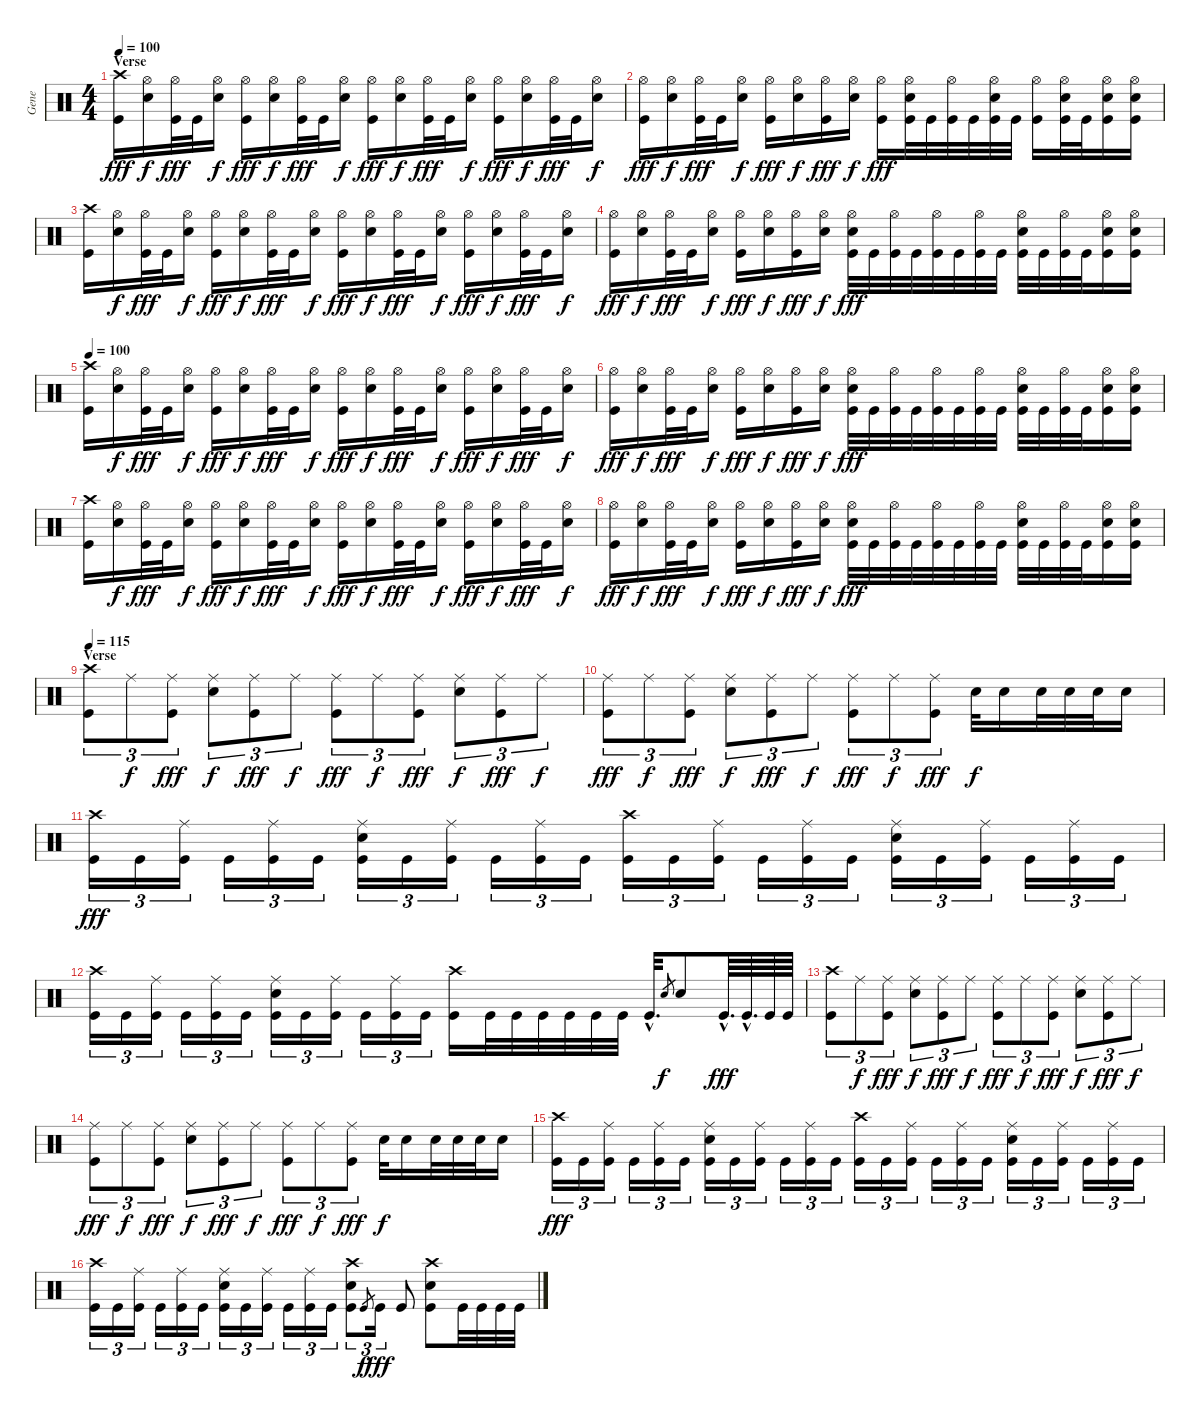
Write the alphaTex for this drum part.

\track ("Gene" "Gene") {instrument percussion}
\staff {score}
\articulation defaults
\ts (4 4)
\section ("" "Verse")
\tempo 100
\clef neutral
\ks c
("Crash high (hit)" "Kick (hit)").16{dy fff} ("Hi-Hat (open)" "Snare (hit) 2").16{dy f} ("Hi-Hat (open)" "Kick (hit)").32{dy fff} "Kick (hit)".32 ("Hi-Hat (open)" "Snare (hit) 2").16{dy f} ("Hi-Hat (open)" "Kick (hit)").16{dy fff} ("Hi-Hat (open)" "Snare (hit) 2").16{dy f} ("Hi-Hat (open)" "Kick (hit)").32{dy fff} "Kick (hit)".32 ("Hi-Hat (open)" "Snare (hit) 2").16{dy f} ("Hi-Hat (open)" "Kick (hit)").16{dy fff} ("Hi-Hat (open)" "Snare (hit) 2").16{dy f} ("Hi-Hat (open)" "Kick (hit)").32{dy fff} "Kick (hit)".32 ("Hi-Hat (open)" "Snare (hit) 2").16{dy f} ("Hi-Hat (open)" "Kick (hit)").16{dy fff} ("Hi-Hat (open)" "Snare (hit) 2").16{dy f} ("Hi-Hat (open)" "Kick (hit)").32{dy fff} "Kick (hit)".32 ("Hi-Hat (open)" "Snare (hit) 2").16{dy f} |
("Hi-Hat (open)" "Kick (hit)").16{dy fff} ("Hi-Hat (open)" "Snare (hit) 2").16{dy f} ("Hi-Hat (open)" "Kick (hit)").32{dy fff} "Kick (hit)".32 ("Hi-Hat (open)" "Snare (hit) 2").16{dy f} ("Hi-Hat (open)" "Kick (hit)").16{dy fff} ("Hi-Hat (open)" "Snare (hit) 2").16{dy f} ("Hi-Hat (open)" "Kick (hit)").16{dy fff} ("Hi-Hat (open)" "Snare (hit) 2").16{dy f} ("Hi-Hat (open)" "Kick (hit)").16{dy fff} ("Hi-Hat (open)" "Snare (hit) 2" "Kick (hit)").32 "Kick (hit)".32 ("Hi-Hat (open)" "Kick (hit)").32 "Kick (hit)".32 ("Hi-Hat (open)" "Snare (hit) 2" "Kick (hit)").32 "Kick (hit)".32 ("Hi-Hat (open)" "Kick (hit)").16 ("Hi-Hat (open)" "Snare (hit) 2" "Kick (hit)").32 "Kick (hit)".32 ("Hi-Hat (open)" "Snare (hit) 2" "Kick (hit)").16 ("Hi-Hat (open)" "Snare (hit) 2" "Kick (hit)").16 |
("Crash high (hit)" "Kick (hit)").16 ("Hi-Hat (open)" "Snare (hit) 2").16{dy f} ("Hi-Hat (open)" "Kick (hit)").32{dy fff} "Kick (hit)".32 ("Hi-Hat (open)" "Snare (hit) 2").16{dy f} ("Hi-Hat (open)" "Kick (hit)").16{dy fff} ("Hi-Hat (open)" "Snare (hit) 2").16{dy f} ("Hi-Hat (open)" "Kick (hit)").32{dy fff} "Kick (hit)".32 ("Hi-Hat (open)" "Snare (hit) 2").16{dy f} ("Hi-Hat (open)" "Kick (hit)").16{dy fff} ("Hi-Hat (open)" "Snare (hit) 2").16{dy f} ("Hi-Hat (open)" "Kick (hit)").32{dy fff} "Kick (hit)".32 ("Hi-Hat (open)" "Snare (hit) 2").16{dy f} ("Hi-Hat (open)" "Kick (hit)").16{dy fff} ("Hi-Hat (open)" "Snare (hit) 2").16{dy f} ("Hi-Hat (open)" "Kick (hit)").32{dy fff} "Kick (hit)".32 ("Hi-Hat (open)" "Snare (hit) 2").16{dy f} |
("Hi-Hat (open)" "Kick (hit)").16{dy fff} ("Hi-Hat (open)" "Snare (hit) 2").16{dy f} ("Hi-Hat (open)" "Kick (hit)").32{dy fff} "Kick (hit)".32 ("Hi-Hat (open)" "Snare (hit) 2").16{dy f} ("Hi-Hat (open)" "Kick (hit)").16{dy fff} ("Hi-Hat (open)" "Snare (hit) 2").16{dy f} ("Hi-Hat (open)" "Kick (hit)").16{dy fff} ("Hi-Hat (open)" "Snare (hit) 2").16{dy f} ("Hi-Hat (open)" "Snare (hit) 2" "Kick (hit)").32{dy fff} "Kick (hit)".32 ("Hi-Hat (open)" "Kick (hit)").32 "Kick (hit)".32 ("Hi-Hat (open)" "Kick (hit)").32 "Kick (hit)".32 ("Hi-Hat (open)" "Kick (hit)").32 "Kick (hit)".32 ("Hi-Hat (open)" "Snare (hit) 2" "Kick (hit)").32 "Kick (hit)".32 ("Hi-Hat (open)" "Kick (hit)").32 "Kick (hit)".32 ("Hi-Hat (open)" "Snare (hit) 2" "Kick (hit)").16 ("Hi-Hat (open)" "Snare (hit) 2" "Kick (hit)").16 |
\tempo 100
("Crash high (hit)" "Kick (hit)").16 ("Hi-Hat (open)" "Snare (hit) 2").16{dy f} ("Hi-Hat (open)" "Kick (hit)").32{dy fff} "Kick (hit)".32 ("Hi-Hat (open)" "Snare (hit) 2").16{dy f} ("Hi-Hat (open)" "Kick (hit)").16{dy fff} ("Hi-Hat (open)" "Snare (hit) 2").16{dy f} ("Hi-Hat (open)" "Kick (hit)").32{dy fff} "Kick (hit)".32 ("Hi-Hat (open)" "Snare (hit) 2").16{dy f} ("Hi-Hat (open)" "Kick (hit)").16{dy fff} ("Hi-Hat (open)" "Snare (hit) 2").16{dy f} ("Hi-Hat (open)" "Kick (hit)").32{dy fff} "Kick (hit)".32 ("Hi-Hat (open)" "Snare (hit) 2").16{dy f} ("Hi-Hat (open)" "Kick (hit)").16{dy fff} ("Hi-Hat (open)" "Snare (hit) 2").16{dy f} ("Hi-Hat (open)" "Kick (hit)").32{dy fff} "Kick (hit)".32 ("Hi-Hat (open)" "Snare (hit) 2").16{dy f} |
("Hi-Hat (open)" "Kick (hit)").16{dy fff} ("Hi-Hat (open)" "Snare (hit) 2").16{dy f} ("Hi-Hat (open)" "Kick (hit)").32{dy fff} "Kick (hit)".32 ("Hi-Hat (open)" "Snare (hit) 2").16{dy f} ("Hi-Hat (open)" "Kick (hit)").16{dy fff} ("Hi-Hat (open)" "Snare (hit) 2").16{dy f} ("Hi-Hat (open)" "Kick (hit)").16{dy fff} ("Hi-Hat (open)" "Snare (hit) 2").16{dy f} ("Hi-Hat (open)" "Snare (hit) 2" "Kick (hit)").32{dy fff} "Kick (hit)".32 ("Hi-Hat (open)" "Kick (hit)").32 "Kick (hit)".32 ("Hi-Hat (open)" "Kick (hit)").32 "Kick (hit)".32 ("Hi-Hat (open)" "Kick (hit)").32 "Kick (hit)".32 ("Hi-Hat (open)" "Snare (hit) 2" "Kick (hit)").32 "Kick (hit)".32 ("Hi-Hat (open)" "Kick (hit)").32 "Kick (hit)".32 ("Hi-Hat (open)" "Snare (hit) 2" "Kick (hit)").16 ("Hi-Hat (open)" "Snare (hit) 2" "Kick (hit)").16 |
("Crash high (hit)" "Kick (hit)").16 ("Hi-Hat (open)" "Snare (hit) 2").16{dy f} ("Hi-Hat (open)" "Kick (hit)").32{dy fff} "Kick (hit)".32 ("Hi-Hat (open)" "Snare (hit) 2").16{dy f} ("Hi-Hat (open)" "Kick (hit)").16{dy fff} ("Hi-Hat (open)" "Snare (hit) 2").16{dy f} ("Hi-Hat (open)" "Kick (hit)").32{dy fff} "Kick (hit)".32 ("Hi-Hat (open)" "Snare (hit) 2").16{dy f} ("Hi-Hat (open)" "Kick (hit)").16{dy fff} ("Hi-Hat (open)" "Snare (hit) 2").16{dy f} ("Hi-Hat (open)" "Kick (hit)").32{dy fff} "Kick (hit)".32 ("Hi-Hat (open)" "Snare (hit) 2").16{dy f} ("Hi-Hat (open)" "Kick (hit)").16{dy fff} ("Hi-Hat (open)" "Snare (hit) 2").16{dy f} ("Hi-Hat (open)" "Kick (hit)").32{dy fff} "Kick (hit)".32 ("Hi-Hat (open)" "Snare (hit) 2").16{dy f} |
("Hi-Hat (open)" "Kick (hit)").16{dy fff} ("Hi-Hat (open)" "Snare (hit) 2").16{dy f} ("Hi-Hat (open)" "Kick (hit)").32{dy fff} "Kick (hit)".32 ("Hi-Hat (open)" "Snare (hit) 2").16{dy f} ("Hi-Hat (open)" "Kick (hit)").16{dy fff} ("Hi-Hat (open)" "Snare (hit) 2").16{dy f} ("Hi-Hat (open)" "Kick (hit)").16{dy fff} ("Hi-Hat (open)" "Snare (hit) 2").16{dy f} ("Hi-Hat (open)" "Snare (hit) 2" "Kick (hit)").32{dy fff} "Kick (hit)".32 ("Hi-Hat (open)" "Kick (hit)").32 "Kick (hit)".32 ("Hi-Hat (open)" "Kick (hit)").32 "Kick (hit)".32 ("Hi-Hat (open)" "Kick (hit)").32 "Kick (hit)".32 ("Hi-Hat (open)" "Snare (hit) 2" "Kick (hit)").32 "Kick (hit)".32 ("Hi-Hat (open)" "Kick (hit)").32 "Kick (hit)".32 ("Hi-Hat (open)" "Snare (hit) 2" "Kick (hit)").16 ("Hi-Hat (open)" "Snare (hit) 2" "Kick (hit)").16 |
\section ("" "Verse")
\tempo 115
("Crash high (hit)" "Kick (hit)").8{tu (3 2)} "Ride (middle)".8{tu (3 2) dy f} ("Ride (middle)" "Kick (hit)").8{tu (3 2) dy fff} ("Ride (middle)" "Snare (hit) 2").8{tu (3 2) dy f} ("Ride (middle)" "Kick (hit)").8{tu (3 2) dy fff} "Ride (middle)".8{tu (3 2) dy f} ("Ride (middle)" "Kick (hit)").8{tu (3 2) dy fff} "Ride (middle)".8{tu (3 2) dy f} ("Ride (middle)" "Kick (hit)").8{tu (3 2) dy fff} ("Ride (middle)" "Snare (hit) 2").8{tu (3 2) dy f} ("Ride (middle)" "Kick (hit)").8{tu (3 2) dy fff} "Ride (middle)".8{tu (3 2) dy f} |
("Ride (middle)" "Kick (hit)").8{tu (3 2) dy fff} "Ride (middle)".8{tu (3 2) dy f} ("Ride (middle)" "Kick (hit)").8{tu (3 2) dy fff} ("Ride (middle)" "Snare (hit) 2").8{tu (3 2) dy f} ("Ride (middle)" "Kick (hit)").8{tu (3 2) dy fff} "Ride (middle)".8{tu (3 2) dy f} ("Ride (middle)" "Kick (hit)").8{tu (3 2) dy fff} "Ride (middle)".8{tu (3 2) dy f} ("Ride (middle)" "Kick (hit)").8{tu (3 2) dy fff} "Snare (hit) 2".32{dy f} "Snare (hit) 2".16 "Snare (hit) 2".32 "Snare (hit) 2".32 "Snare (hit) 2".32 "Snare (hit) 2".16 |
("Crash high (hit)" "Kick (hit)").16{tu (3 2) dy fff} "Kick (hit)".16{tu (3 2)} ("Ride (middle)" "Kick (hit)").16{tu (3 2)} "Kick (hit)".16{tu (3 2)} ("Ride (middle)" "Kick (hit)").16{tu (3 2)} "Kick (hit)".16{tu (3 2)} ("Ride (middle)" "Snare (hit) 2" "Kick (hit)").16{tu (3 2)} "Kick (hit)".16{tu (3 2)} ("Ride (middle)" "Kick (hit)").16{tu (3 2)} "Kick (hit)".16{tu (3 2)} ("Ride (middle)" "Kick (hit)").16{tu (3 2)} "Kick (hit)".16{tu (3 2)} ("Crash high (hit)" "Kick (hit)").16{tu (3 2)} "Kick (hit)".16{tu (3 2)} ("Ride (middle)" "Kick (hit)").16{tu (3 2)} "Kick (hit)".16{tu (3 2)} ("Ride (middle)" "Kick (hit)").16{tu (3 2)} "Kick (hit)".16{tu (3 2)} ("Ride (middle)" "Snare (hit) 2" "Kick (hit)").16{tu (3 2)} "Kick (hit)".16{tu (3 2)} ("Ride (middle)" "Kick (hit)").16{tu (3 2)} "Kick (hit)".16{tu (3 2)} ("Ride (middle)" "Kick (hit)").16{tu (3 2)} "Kick (hit)".16{tu (3 2)} |
("Crash high (hit)" "Kick (hit)").16{tu (3 2)} "Kick (hit)".16{tu (3 2)} ("Ride (middle)" "Kick (hit)").16{tu (3 2)} "Kick (hit)".16{tu (3 2)} ("Ride (middle)" "Kick (hit)").16{tu (3 2)} "Kick (hit)".16{tu (3 2)} ("Ride (middle)" "Snare (hit) 2" "Kick (hit)").16{tu (3 2)} "Kick (hit)".16{tu (3 2)} ("Ride (middle)" "Kick (hit)").16{tu (3 2)} "Kick (hit)".16{tu (3 2)} ("Ride (middle)" "Kick (hit)").16{tu (3 2)} "Kick (hit)".16{tu (3 2)} ("Crash high (hit)" "Kick (hit)").16 "Kick (hit)".32 "Kick (hit)".32 "Kick (hit)".32 "Kick (hit)".32 "Kick (hit)".32 "Kick (hit)".32 "Kick (hit)"{hac}.32{d} "Snare (hit) 2".8{gr dy f} "Snare (hit) 2".8 "Kick (hit)"{hac}.64{d dy fff} "Kick (hit)"{hac}.64{d} "Kick (hit)".64 "Kick (hit)".64 |
("Crash high (hit)" "Kick (hit)").8{tu (3 2)} "Ride (middle)".8{tu (3 2) dy f} ("Ride (middle)" "Kick (hit)").8{tu (3 2) dy fff} ("Ride (middle)" "Snare (hit) 2").8{tu (3 2) dy f} ("Ride (middle)" "Kick (hit)").8{tu (3 2) dy fff} "Ride (middle)".8{tu (3 2) dy f} ("Ride (middle)" "Kick (hit)").8{tu (3 2) dy fff} "Ride (middle)".8{tu (3 2) dy f} ("Ride (middle)" "Kick (hit)").8{tu (3 2) dy fff} ("Ride (middle)" "Snare (hit) 2").8{tu (3 2) dy f} ("Ride (middle)" "Kick (hit)").8{tu (3 2) dy fff} "Ride (middle)".8{tu (3 2) dy f} |
("Ride (middle)" "Kick (hit)").8{tu (3 2) dy fff} "Ride (middle)".8{tu (3 2) dy f} ("Ride (middle)" "Kick (hit)").8{tu (3 2) dy fff} ("Ride (middle)" "Snare (hit) 2").8{tu (3 2) dy f} ("Ride (middle)" "Kick (hit)").8{tu (3 2) dy fff} "Ride (middle)".8{tu (3 2) dy f} ("Ride (middle)" "Kick (hit)").8{tu (3 2) dy fff} "Ride (middle)".8{tu (3 2) dy f} ("Ride (middle)" "Kick (hit)").8{tu (3 2) dy fff} "Snare (hit) 2".32{dy f} "Snare (hit) 2".16 "Snare (hit) 2".32 "Snare (hit) 2".32 "Snare (hit) 2".32 "Snare (hit) 2".16 |
("Crash high (hit)" "Kick (hit)").16{tu (3 2) dy fff} "Kick (hit)".16{tu (3 2)} ("Ride (middle)" "Kick (hit)").16{tu (3 2)} "Kick (hit)".16{tu (3 2)} ("Ride (middle)" "Kick (hit)").16{tu (3 2)} "Kick (hit)".16{tu (3 2)} ("Ride (middle)" "Snare (hit) 2" "Kick (hit)").16{tu (3 2)} "Kick (hit)".16{tu (3 2)} ("Ride (middle)" "Kick (hit)").16{tu (3 2)} "Kick (hit)".16{tu (3 2)} ("Ride (middle)" "Kick (hit)").16{tu (3 2)} "Kick (hit)".16{tu (3 2)} ("Crash high (hit)" "Kick (hit)").16{tu (3 2)} "Kick (hit)".16{tu (3 2)} ("Ride (middle)" "Kick (hit)").16{tu (3 2)} "Kick (hit)".16{tu (3 2)} ("Ride (middle)" "Kick (hit)").16{tu (3 2)} "Kick (hit)".16{tu (3 2)} ("Ride (middle)" "Snare (hit) 2" "Kick (hit)").16{tu (3 2)} "Kick (hit)".16{tu (3 2)} ("Ride (middle)" "Kick (hit)").16{tu (3 2)} "Kick (hit)".16{tu (3 2)} ("Ride (middle)" "Kick (hit)").16{tu (3 2)} "Kick (hit)".16{tu (3 2)} |
("Crash high (hit)" "Kick (hit)").16{tu (3 2)} "Kick (hit)".16{tu (3 2)} ("Ride (middle)" "Kick (hit)").16{tu (3 2)} "Kick (hit)".16{tu (3 2)} ("Ride (middle)" "Kick (hit)").16{tu (3 2)} "Kick (hit)".16{tu (3 2)} ("Ride (middle)" "Snare (hit) 2" "Kick (hit)").16{tu (3 2)} "Kick (hit)".16{tu (3 2)} ("Ride (middle)" "Kick (hit)").16{tu (3 2)} "Kick (hit)".16{tu (3 2)} ("Ride (middle)" "Kick (hit)").16{tu (3 2)} "Kick (hit)".16{tu (3 2)} ("Crash high (hit)" "Snare (hit) 2" "Kick (hit)").8{tu (3 2)} "Kick (hit)".8{gr dy f} "Kick (hit)".16{tu (3 2) dy fff} "Kick (hit)".8 ("Crash high (hit)" "Snare (hit) 2" "Kick (hit)").8 "Kick (hit)".32 "Kick (hit)".32 "Kick (hit)".32 "Kick (hit)".32
